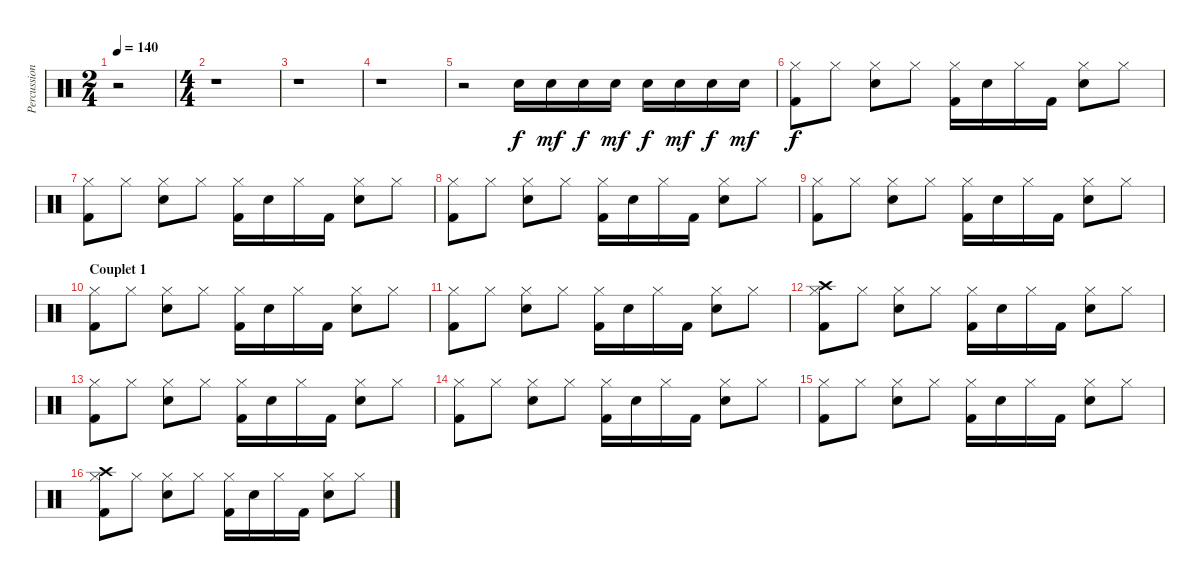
\track ("Percussions" "Percussion") {instrument percussion}
\staff {score}
\articulation defaults
\ts (2 4)
\tempo 140
\clef neutral
\ks c
r.2{dy f} |
\ts (4 4)
r.1 |
r.1 |
r.1 |
r.2 "Electric Snare (hit)".16 "Electric Snare (hit)".16{dy mf} "Electric Snare (hit)".16{dy f} "Electric Snare (hit)".16{dy mf} "Electric Snare (hit)".16{dy f} "Electric Snare (hit)".16{dy mf} "Electric Snare (hit)".16{dy f} "Electric Snare (hit)".16{dy mf} |
("Hi-Hat (closed)" "Kick (hit) 2").8{dy f} "Hi-Hat (closed)".8 ("Hi-Hat (closed)" "Electric Snare (hit)").8 "Hi-Hat (closed)".8 ("Hi-Hat (closed)" "Kick (hit) 2").16 "Electric Snare (hit)".16 "Hi-Hat (closed)".16 "Kick (hit) 2".16 ("Hi-Hat (closed)" "Electric Snare (hit)").8 "Hi-Hat (closed)".8 |
("Hi-Hat (closed)" "Kick (hit) 2").8 "Hi-Hat (closed)".8 ("Hi-Hat (closed)" "Electric Snare (hit)").8 "Hi-Hat (closed)".8 ("Hi-Hat (closed)" "Kick (hit) 2").16 "Electric Snare (hit)".16 "Hi-Hat (closed)".16 "Kick (hit) 2".16 ("Hi-Hat (closed)" "Electric Snare (hit)").8 "Hi-Hat (closed)".8 |
("Hi-Hat (closed)" "Kick (hit) 2").8 "Hi-Hat (closed)".8 ("Hi-Hat (closed)" "Electric Snare (hit)").8 "Hi-Hat (closed)".8 ("Hi-Hat (closed)" "Kick (hit) 2").16 "Electric Snare (hit)".16 "Hi-Hat (closed)".16 "Kick (hit) 2".16 ("Hi-Hat (closed)" "Electric Snare (hit)").8 "Hi-Hat (closed)".8 |
("Hi-Hat (closed)" "Kick (hit) 2").8 "Hi-Hat (closed)".8 ("Hi-Hat (closed)" "Electric Snare (hit)").8 "Hi-Hat (closed)".8 ("Hi-Hat (closed)" "Kick (hit) 2").16 "Electric Snare (hit)".16 "Hi-Hat (closed)".16 "Kick (hit) 2".16 ("Hi-Hat (closed)" "Electric Snare (hit)").8 "Hi-Hat (closed)".8 |
\section ("" "Couplet 1")
("Hi-Hat (closed)" "Kick (hit) 2").8 "Hi-Hat (closed)".8 ("Hi-Hat (closed)" "Electric Snare (hit)").8 "Hi-Hat (closed)".8 ("Hi-Hat (closed)" "Kick (hit) 2").16 "Electric Snare (hit)".16 "Hi-Hat (closed)".16 "Kick (hit) 2".16 ("Hi-Hat (closed)" "Electric Snare (hit)").8 "Hi-Hat (closed)".8 |
("Hi-Hat (closed)" "Kick (hit) 2").8 "Hi-Hat (closed)".8 ("Hi-Hat (closed)" "Electric Snare (hit)").8 "Hi-Hat (closed)".8 ("Hi-Hat (closed)" "Kick (hit) 2").16 "Electric Snare (hit)".16 "Hi-Hat (closed)".16 "Kick (hit) 2".16 ("Hi-Hat (closed)" "Electric Snare (hit)").8 "Hi-Hat (closed)".8 |
("Hi-Hat (closed)" "Crash high (hit)" "Kick (hit) 2").8 "Hi-Hat (closed)".8 ("Hi-Hat (closed)" "Electric Snare (hit)").8 "Hi-Hat (closed)".8 ("Hi-Hat (closed)" "Kick (hit) 2").16 "Electric Snare (hit)".16 "Hi-Hat (closed)".16 "Kick (hit) 2".16 ("Hi-Hat (closed)" "Electric Snare (hit)").8 "Hi-Hat (closed)".8 |
("Hi-Hat (closed)" "Kick (hit) 2").8 "Hi-Hat (closed)".8 ("Hi-Hat (closed)" "Electric Snare (hit)").8 "Hi-Hat (closed)".8 ("Hi-Hat (closed)" "Kick (hit) 2").16 "Electric Snare (hit)".16 "Hi-Hat (closed)".16 "Kick (hit) 2".16 ("Hi-Hat (closed)" "Electric Snare (hit)").8 "Hi-Hat (closed)".8 |
("Hi-Hat (closed)" "Kick (hit) 2").8 "Hi-Hat (closed)".8 ("Hi-Hat (closed)" "Electric Snare (hit)").8 "Hi-Hat (closed)".8 ("Hi-Hat (closed)" "Kick (hit) 2").16 "Electric Snare (hit)".16 "Hi-Hat (closed)".16 "Kick (hit) 2".16 ("Hi-Hat (closed)" "Electric Snare (hit)").8 "Hi-Hat (closed)".8 |
("Hi-Hat (closed)" "Kick (hit) 2").8 "Hi-Hat (closed)".8 ("Hi-Hat (closed)" "Electric Snare (hit)").8 "Hi-Hat (closed)".8 ("Hi-Hat (closed)" "Kick (hit) 2").16 "Electric Snare (hit)".16 "Hi-Hat (closed)".16 "Kick (hit) 2".16 ("Hi-Hat (closed)" "Electric Snare (hit)").8 "Hi-Hat (closed)".8 |
("Hi-Hat (closed)" "Crash high (hit)" "Kick (hit) 2").8 "Hi-Hat (closed)".8 ("Hi-Hat (closed)" "Electric Snare (hit)").8 "Hi-Hat (closed)".8 ("Hi-Hat (closed)" "Kick (hit) 2").16 "Electric Snare (hit)".16 "Hi-Hat (closed)".16 "Kick (hit) 2".16 ("Hi-Hat (closed)" "Electric Snare (hit)").8 "Hi-Hat (closed)".8
